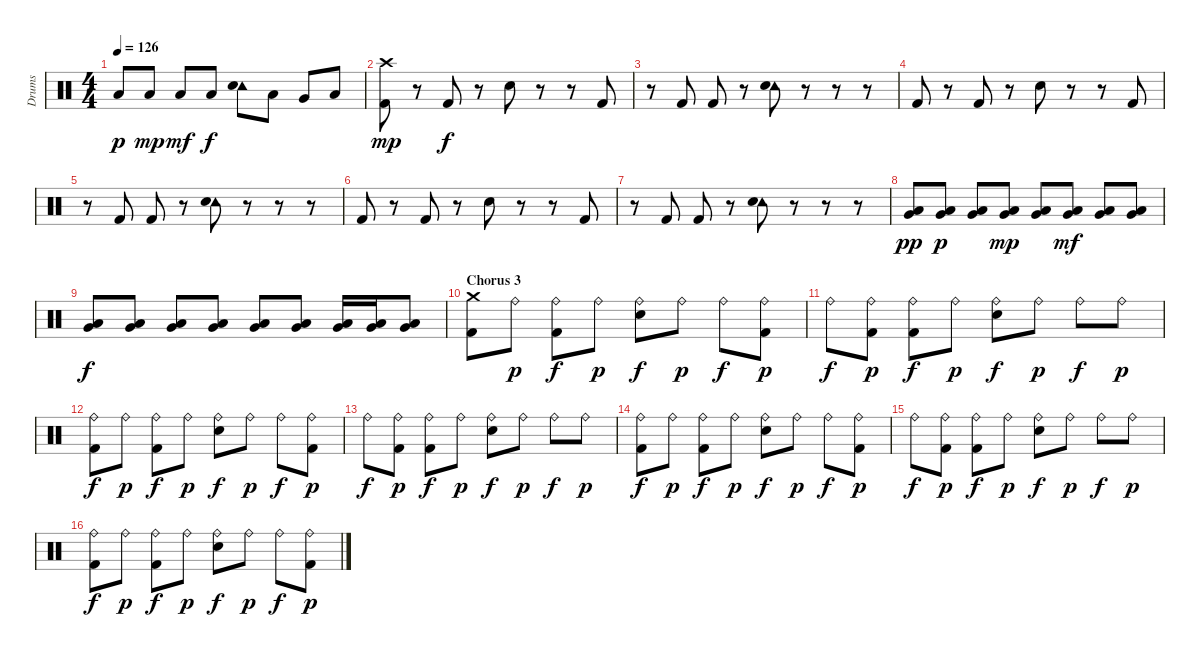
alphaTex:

\track ("Drums" "Drums") {instrument percussion}
\staff {score}
\articulation defaults
\ts (4 4)
\tempo 126
\clef neutral
\ks c "Low Floor Tom (hit)".8{dy p} "Low Floor Tom (hit)".8{dy mp} "Low Floor Tom (hit)".8{dy mf} "Low Floor Tom (hit)".8{dy f}
("Tambourine (hit)" "Electric Snare (hit)").8 "Low Tom (hit)".8 "Very Low Tom (hit)".8 "Low Floor Tom (hit)".8 |
("Crash high (hit)" "Kick (hit) 2").8{dy mp} r.8 "Kick (hit) 2".8{dy f} r.8 "Electric Snare (hit)".8 r.8 r.8 "Kick (hit) 2".8 |
r.8 "Kick (hit) 2".8 "Kick (hit) 2".8 r.8 ("Tambourine (hit)" "Electric Snare (hit)").8 r.8 r.8 r.8 |
"Kick (hit) 2".8 r.8 "Kick (hit) 2".8 r.8 "Electric Snare (hit)".8 r.8 r.8 "Kick (hit) 2".8 |
r.8 "Kick (hit) 2".8 "Kick (hit) 2".8 r.8 ("Tambourine (hit)" "Electric Snare (hit)").8 r.8 r.8 r.8 |
"Kick (hit) 2".8 r.8 "Kick (hit) 2".8 r.8 "Electric Snare (hit)".8 r.8 r.8 "Kick (hit) 2".8 |
r.8 "Kick (hit) 2".8 "Kick (hit) 2".8 r.8 ("Tambourine (hit)" "Electric Snare (hit)").8 r.8 r.8 r.8 |
("Low Floor Tom (hit)" "Very Low Tom (hit)").8{dy pp} ("Low Floor Tom (hit)" "Very Low Tom (hit)").8{dy p} ("Low Floor Tom (hit)" "Very Low Tom (hit)").8 ("Low Floor Tom (hit)" "Very Low Tom (hit)").8{dy mp} ("Low Floor Tom (hit)" "Very Low Tom (hit)").8 ("Low Floor Tom (hit)" "Very Low Tom (hit)").8{dy mf} ("Low Floor Tom (hit)" "Very Low Tom (hit)").8 ("Low Floor Tom (hit)" "Very Low Tom (hit)").8 |
("Low Floor Tom (hit)" "Very Low Tom (hit)").8{dy f} ("Low Floor Tom (hit)" "Very Low Tom (hit)").8 ("Low Floor Tom (hit)" "Very Low Tom (hit)").8 ("Low Floor Tom (hit)" "Very Low Tom (hit)").8 ("Low Floor Tom (hit)" "Very Low Tom (hit)").8 ("Low Floor Tom (hit)" "Very Low Tom (hit)").8 ("Low Floor Tom (hit)" "Very Low Tom (hit)").16 ("Low Floor Tom (hit)" "Very Low Tom (hit)").16 ("Low Floor Tom (hit)" "Very Low Tom (hit)").8 |
\section ("" "Chorus 3")
("Crash medium (hit)" "Kick (hit) 2").8 "Ride (bell)".8{dy p} ("Ride (bell)" "Kick (hit) 2").8{dy f} "Ride (bell)".8{dy p} ("Ride (bell)" "Electric Snare (hit)").8{dy f} "Ride (bell)".8{dy p} "Ride (bell)".8{dy f} ("Ride (bell)" "Kick (hit) 2").8{dy p} |
"Ride (bell)".8{dy f} ("Ride (bell)" "Kick (hit) 2").8{dy p} ("Ride (bell)" "Kick (hit) 2").8{dy f} "Ride (bell)".8{dy p} ("Ride (bell)" "Electric Snare (hit)").8{dy f} "Ride (bell)".8{dy p} "Ride (bell)".8{dy f} "Ride (bell)".8{dy p} |
("Ride (bell)" "Kick (hit) 2").8{dy f} "Ride (bell)".8{dy p} ("Ride (bell)" "Kick (hit) 2").8{dy f} "Ride (bell)".8{dy p} ("Ride (bell)" "Electric Snare (hit)").8{dy f} "Ride (bell)".8{dy p} "Ride (bell)".8{dy f} ("Ride (bell)" "Kick (hit) 2").8{dy p} |
"Ride (bell)".8{dy f} ("Ride (bell)" "Kick (hit) 2").8{dy p} ("Ride (bell)" "Kick (hit) 2").8{dy f} "Ride (bell)".8{dy p} ("Ride (bell)" "Electric Snare (hit)").8{dy f} "Ride (bell)".8{dy p} "Ride (bell)".8{dy f} "Ride (bell)".8{dy p} |
("Ride (bell)" "Kick (hit) 2").8{dy f} "Ride (bell)".8{dy p} ("Ride (bell)" "Kick (hit) 2").8{dy f} "Ride (bell)".8{dy p} ("Ride (bell)" "Electric Snare (hit)").8{dy f} "Ride (bell)".8{dy p} "Ride (bell)".8{dy f} ("Ride (bell)" "Kick (hit) 2").8{dy p} |
"Ride (bell)".8{dy f} ("Ride (bell)" "Kick (hit) 2").8{dy p} ("Ride (bell)" "Kick (hit) 2").8{dy f} "Ride (bell)".8{dy p} ("Ride (bell)" "Electric Snare (hit)").8{dy f} "Ride (bell)".8{dy p} "Ride (bell)".8{dy f} "Ride (bell)".8{dy p} |
("Ride (bell)" "Kick (hit) 2").8{dy f} "Ride (bell)".8{dy p} ("Ride (bell)" "Kick (hit) 2").8{dy f} "Ride (bell)".8{dy p} ("Ride (bell)" "Electric Snare (hit)").8{dy f} "Ride (bell)".8{dy p} "Ride (bell)".8{dy f} ("Ride (bell)" "Kick (hit) 2").8{dy p}
